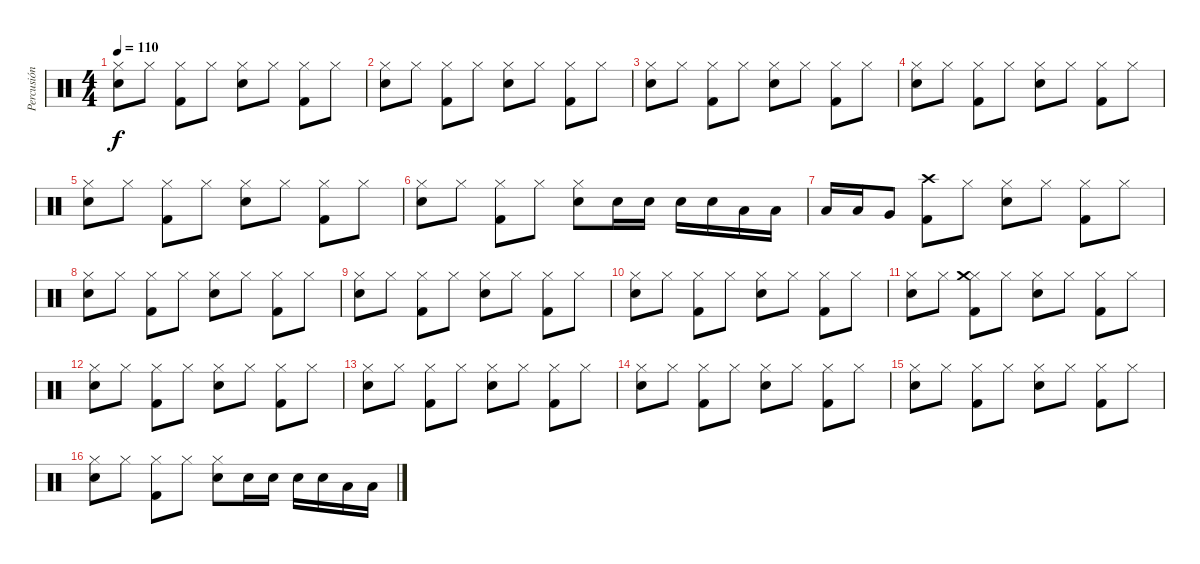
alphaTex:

\track ("Percusión" "Percusión") {instrument percussion}
\staff {score}
\articulation defaults
\ts (4 4)
\tempo 110
\clef neutral
\ks c
("Hi-Hat (closed)" "Electric Snare (hit)").8{dy f} "Hi-Hat (closed)".8 ("Hi-Hat (closed)" "Kick (hit) 2").8 "Hi-Hat (closed)".8 ("Hi-Hat (closed)" "Electric Snare (hit)").8 "Hi-Hat (closed)".8 ("Hi-Hat (closed)" "Kick (hit) 2").8 "Hi-Hat (closed)".8 |
("Hi-Hat (closed)" "Electric Snare (hit)").8 "Hi-Hat (closed)".8 ("Hi-Hat (closed)" "Kick (hit) 2").8 "Hi-Hat (closed)".8 ("Hi-Hat (closed)" "Electric Snare (hit)").8 "Hi-Hat (closed)".8 ("Hi-Hat (closed)" "Kick (hit) 2").8 "Hi-Hat (closed)".8 |
("Hi-Hat (closed)" "Electric Snare (hit)").8 "Hi-Hat (closed)".8 ("Hi-Hat (closed)" "Kick (hit) 2").8 "Hi-Hat (closed)".8 ("Hi-Hat (closed)" "Electric Snare (hit)").8 "Hi-Hat (closed)".8 ("Hi-Hat (closed)" "Kick (hit) 2").8 "Hi-Hat (closed)".8 |
("Hi-Hat (closed)" "Electric Snare (hit)").8 "Hi-Hat (closed)".8 ("Hi-Hat (closed)" "Kick (hit) 2").8 "Hi-Hat (closed)".8 ("Hi-Hat (closed)" "Electric Snare (hit)").8 "Hi-Hat (closed)".8 ("Hi-Hat (closed)" "Kick (hit) 2").8 "Hi-Hat (closed)".8 |
("Hi-Hat (closed)" "Electric Snare (hit)").8 "Hi-Hat (closed)".8 ("Hi-Hat (closed)" "Kick (hit) 2").8 "Hi-Hat (closed)".8 ("Hi-Hat (closed)" "Electric Snare (hit)").8 "Hi-Hat (closed)".8 ("Hi-Hat (closed)" "Kick (hit) 2").8 "Hi-Hat (closed)".8 |
("Hi-Hat (closed)" "Electric Snare (hit)").8 "Hi-Hat (closed)".8 ("Hi-Hat (closed)" "Kick (hit) 2").8 "Hi-Hat (closed)".8 ("Hi-Hat (closed)" "Electric Snare (hit)").8 "Electric Snare (hit)".16 "Electric Snare (hit)".16 "Electric Snare (hit)".16 "Electric Snare (hit)".16 "Low Tom (hit)".16 "Low Tom (hit)".16 |
"Low Tom (hit)".16 "Low Tom (hit)".16 "Very Low Tom (hit)".8 ("Crash high (hit)" "Kick (hit) 2").8 "Hi-Hat (closed)".8 ("Hi-Hat (closed)" "Electric Snare (hit)").8 "Hi-Hat (closed)".8 ("Hi-Hat (closed)" "Kick (hit) 2").8 "Hi-Hat (closed)".8 |
("Hi-Hat (closed)" "Electric Snare (hit)").8 "Hi-Hat (closed)".8 ("Hi-Hat (closed)" "Kick (hit) 2").8 "Hi-Hat (closed)".8 ("Hi-Hat (closed)" "Electric Snare (hit)").8 "Hi-Hat (closed)".8 ("Hi-Hat (closed)" "Kick (hit) 2").8 "Hi-Hat (closed)".8 |
("Hi-Hat (closed)" "Electric Snare (hit)").8 "Hi-Hat (closed)".8 ("Hi-Hat (closed)" "Kick (hit) 2").8 "Hi-Hat (closed)".8 ("Hi-Hat (closed)" "Electric Snare (hit)").8 "Hi-Hat (closed)".8 ("Hi-Hat (closed)" "Kick (hit) 2").8 "Hi-Hat (closed)".8 |
("Hi-Hat (closed)" "Electric Snare (hit)").8 "Hi-Hat (closed)".8 ("Hi-Hat (closed)" "Kick (hit) 2").8 "Hi-Hat (closed)".8 ("Hi-Hat (closed)" "Electric Snare (hit)").8 "Hi-Hat (closed)".8 ("Hi-Hat (closed)" "Kick (hit) 2").8 "Hi-Hat (closed)".8 |
("Hi-Hat (closed)" "Electric Snare (hit)").8 "Hi-Hat (closed)".8 ("Hi-Hat (closed)" "Kick (hit) 2" "Crash medium (hit)").8 "Hi-Hat (closed)".8 ("Hi-Hat (closed)" "Electric Snare (hit)").8 "Hi-Hat (closed)".8 ("Hi-Hat (closed)" "Kick (hit) 2").8 "Hi-Hat (closed)".8 |
("Hi-Hat (closed)" "Electric Snare (hit)").8 "Hi-Hat (closed)".8 ("Hi-Hat (closed)" "Kick (hit) 2").8 "Hi-Hat (closed)".8 ("Hi-Hat (closed)" "Electric Snare (hit)").8 "Hi-Hat (closed)".8 ("Hi-Hat (closed)" "Kick (hit) 2").8 "Hi-Hat (closed)".8 |
("Hi-Hat (closed)" "Electric Snare (hit)").8 "Hi-Hat (closed)".8 ("Hi-Hat (closed)" "Kick (hit) 2").8 "Hi-Hat (closed)".8 ("Hi-Hat (closed)" "Electric Snare (hit)").8 "Hi-Hat (closed)".8 ("Hi-Hat (closed)" "Kick (hit) 2").8 "Hi-Hat (closed)".8 |
("Hi-Hat (closed)" "Electric Snare (hit)").8 "Hi-Hat (closed)".8 ("Hi-Hat (closed)" "Kick (hit) 2").8 "Hi-Hat (closed)".8 ("Hi-Hat (closed)" "Electric Snare (hit)").8 "Hi-Hat (closed)".8 ("Hi-Hat (closed)" "Kick (hit) 2").8 "Hi-Hat (closed)".8 |
("Hi-Hat (closed)" "Electric Snare (hit)").8 "Hi-Hat (closed)".8 ("Hi-Hat (closed)" "Kick (hit) 2").8 "Hi-Hat (closed)".8 ("Hi-Hat (closed)" "Electric Snare (hit)").8 "Hi-Hat (closed)".8 ("Hi-Hat (closed)" "Kick (hit) 2").8 "Hi-Hat (closed)".8 |
("Hi-Hat (closed)" "Electric Snare (hit)").8 "Hi-Hat (closed)".8 ("Hi-Hat (closed)" "Kick (hit) 2").8 "Hi-Hat (closed)".8 ("Hi-Hat (closed)" "Electric Snare (hit)").8 "Electric Snare (hit)".16 "Electric Snare (hit)".16 "Electric Snare (hit)".16 "Electric Snare (hit)".16 "Low Tom (hit)".16 "Low Tom (hit)".16
